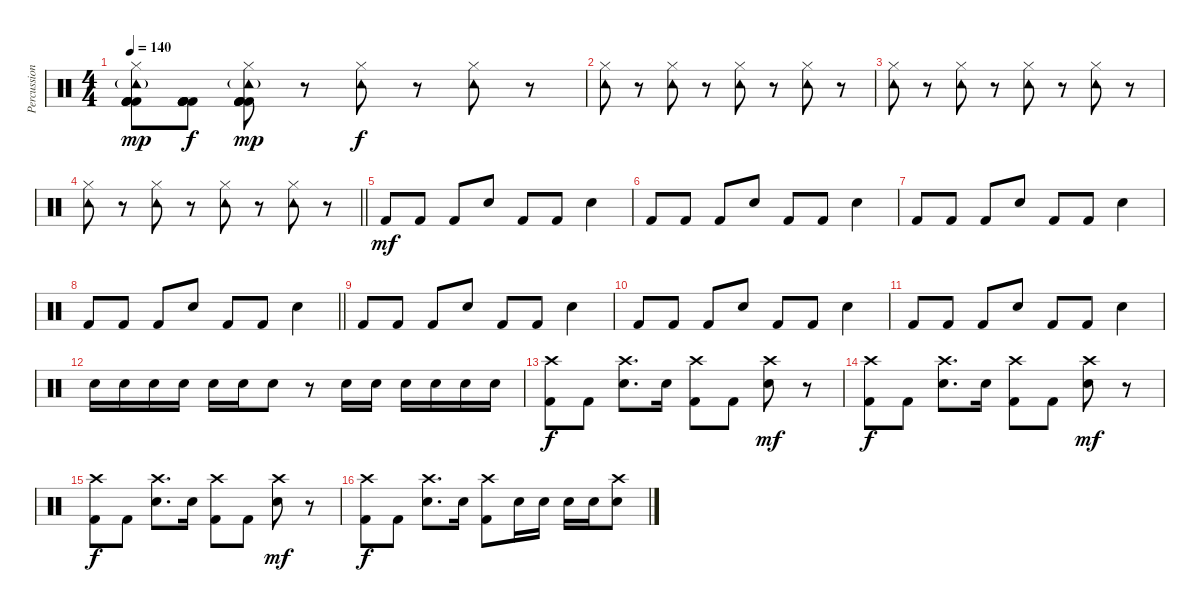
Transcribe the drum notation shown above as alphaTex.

\track ("Percussion" "Percussion") {instrument percussion}
\staff {score}
\articulation defaults
\ts (4 4)
\tempo 140
\clef neutral
\ks c
("Hi-Hat (closed)" "Kick (hit) 2" "Kick (hit) 2" "Tambourine (hit)"{g} "Kick (hit) 2" "Kick (hit) 2").8{dy mp} ("Kick (hit) 2" "Kick (hit) 2" "Kick (hit) 2" "Kick (hit) 2" "Kick (hit) 2").8{dy f} ("Hi-Hat (closed)" "Kick (hit) 2" "Kick (hit) 2" "Tambourine (hit)"{g} "Kick (hit) 2" "Kick (hit) 2").8{dy mp} r.8 ("Hi-Hat (closed)" "Tambourine (hit)").8{dy f} r.8 ("Hi-Hat (closed)" "Tambourine (hit)").8 r.8 |
("Hi-Hat (closed)" "Tambourine (hit)").8 r.8 ("Hi-Hat (closed)" "Tambourine (hit)").8 r.8 ("Hi-Hat (closed)" "Tambourine (hit)").8 r.8 ("Hi-Hat (closed)" "Tambourine (hit)").8 r.8 |
("Hi-Hat (closed)" "Tambourine (hit)").8 r.8 ("Hi-Hat (closed)" "Tambourine (hit)").8 r.8 ("Hi-Hat (closed)" "Tambourine (hit)").8 r.8 ("Hi-Hat (closed)" "Tambourine (hit)").8 r.8 |
\barLineRight lightlight
("Hi-Hat (closed)" "Tambourine (hit)").8 r.8 ("Hi-Hat (closed)" "Tambourine (hit)").8 r.8 ("Hi-Hat (closed)" "Tambourine (hit)").8 r.8 ("Hi-Hat (closed)" "Tambourine (hit)").8 r.8 |
"Kick (hit) 2".8{dy mf} "Kick (hit) 2".8 "Kick (hit) 2".8 "Electric Snare (hit)".8 "Kick (hit) 2".8 "Kick (hit) 2".8 "Electric Snare (hit)".4 |
"Kick (hit) 2".8 "Kick (hit) 2".8 "Kick (hit) 2".8 "Electric Snare (hit)".8 "Kick (hit) 2".8 "Kick (hit) 2".8 "Electric Snare (hit)".4 |
"Kick (hit) 2".8 "Kick (hit) 2".8 "Kick (hit) 2".8 "Electric Snare (hit)".8 "Kick (hit) 2".8 "Kick (hit) 2".8 "Electric Snare (hit)".4 |
\barLineRight lightlight "Kick (hit) 2".8 "Kick (hit) 2".8 "Kick (hit) 2".8 "Electric Snare (hit)".8 "Kick (hit) 2".8 "Kick (hit) 2".8 "Electric Snare (hit)".4
|
"Kick (hit) 2".8 "Kick (hit) 2".8 "Kick (hit) 2".8 "Electric Snare (hit)".8 "Kick (hit) 2".8 "Kick (hit) 2".8 "Electric Snare (hit)".4 |
"Kick (hit) 2".8 "Kick (hit) 2".8 "Kick (hit) 2".8 "Electric Snare (hit)".8 "Kick (hit) 2".8 "Kick (hit) 2".8 "Electric Snare (hit)".4 |
"Kick (hit) 2".8 "Kick (hit) 2".8 "Kick (hit) 2".8 "Electric Snare (hit)".8 "Kick (hit) 2".8 "Kick (hit) 2".8 "Electric Snare (hit)".4 |
"Electric Snare (hit)".16 "Electric Snare (hit)".16 "Electric Snare (hit)".16 "Electric Snare (hit)".16 "Electric Snare (hit)".16 "Electric Snare (hit)".16 "Electric Snare (hit)".8 r.8 "Electric Snare (hit)".16 "Electric Snare (hit)".16 "Electric Snare (hit)".16 "Electric Snare (hit)".16 "Electric Snare (hit)".16 "Electric Snare (hit)".16 |
("Kick (hit) 2" "Crash high (hit)").8{dy f} "Kick (hit) 2".8 ("Electric Snare (hit)" "Crash high (hit)").8{d} "Electric Snare (hit)".16 ("Kick (hit) 2" "Crash high (hit)").8 "Kick (hit) 2".8 ("Electric Snare (hit)" "Crash high (hit)").8{dy mf} r.8 |
("Kick (hit) 2" "Crash high (hit)").8{dy f} "Kick (hit) 2".8 ("Electric Snare (hit)" "Crash high (hit)").8{d} "Electric Snare (hit)".16 ("Kick (hit) 2" "Crash high (hit)").8 "Kick (hit) 2".8 ("Electric Snare (hit)" "Crash high (hit)").8{dy mf} r.8 |
("Kick (hit) 2" "Crash high (hit)").8{dy f} "Kick (hit) 2".8 ("Electric Snare (hit)" "Crash high (hit)").8{d} "Electric Snare (hit)".16 ("Kick (hit) 2" "Crash high (hit)").8 "Kick (hit) 2".8 ("Electric Snare (hit)" "Crash high (hit)").8{dy mf} r.8 |
("Kick (hit) 2" "Crash high (hit)").8{dy f} "Kick (hit) 2".8 ("Electric Snare (hit)" "Crash high (hit)").8{d} "Electric Snare (hit)".16 ("Kick (hit) 2" "Crash high (hit)").8 "Electric Snare (hit)".16 "Electric Snare (hit)".16 "Electric Snare (hit)".16 "Electric Snare (hit)".16 ("Electric Snare (hit)" "Crash high (hit)").8
